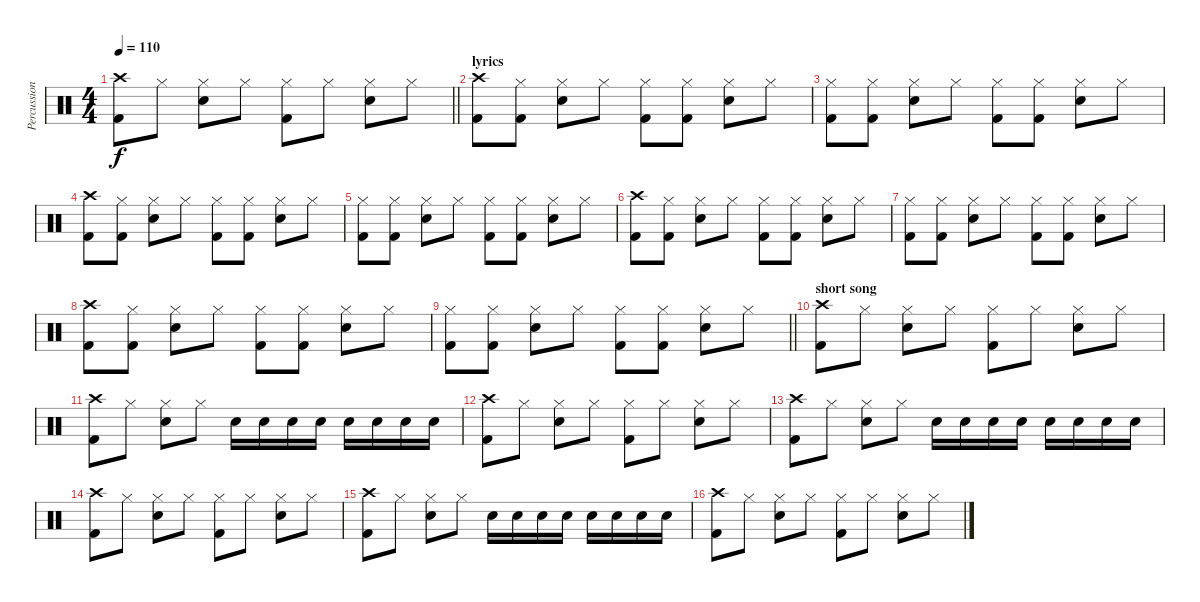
\track ("Percussion" "Percussion") {instrument percussion}
\staff {score}
\articulation defaults
\ts (4 4)
\tempo 110
\clef neutral
\barLineRight lightlight
\ks c
("Crash high (hit)" "Kick (hit) 2").8{dy f} "Hi-Hat (closed)".8 ("Hi-Hat (closed)" "Electric Snare (hit)").8 "Hi-Hat (closed)".8 ("Hi-Hat (closed)" "Kick (hit) 2").8 "Hi-Hat (closed)".8 ("Hi-Hat (closed)" "Electric Snare (hit)").8 "Hi-Hat (closed)".8 |
\section ("" "lyrics")
("Crash high (hit)" "Kick (hit) 2").8 ("Hi-Hat (closed)" "Kick (hit) 2").8 ("Hi-Hat (closed)" "Electric Snare (hit)").8 "Hi-Hat (closed)".8 ("Hi-Hat (closed)" "Kick (hit) 2").8 ("Hi-Hat (closed)" "Kick (hit) 2").8 ("Hi-Hat (closed)" "Electric Snare (hit)").8 "Hi-Hat (closed)".8 |
("Hi-Hat (closed)" "Kick (hit) 2").8 ("Hi-Hat (closed)" "Kick (hit) 2").8 ("Hi-Hat (closed)" "Electric Snare (hit)").8 "Hi-Hat (closed)".8 ("Hi-Hat (closed)" "Kick (hit) 2").8 ("Hi-Hat (closed)" "Kick (hit) 2").8 ("Hi-Hat (closed)" "Electric Snare (hit)").8 "Hi-Hat (closed)".8 |
("Crash high (hit)" "Kick (hit) 2").8 ("Hi-Hat (closed)" "Kick (hit) 2").8 ("Hi-Hat (closed)" "Electric Snare (hit)").8 "Hi-Hat (closed)".8 ("Hi-Hat (closed)" "Kick (hit) 2").8 ("Hi-Hat (closed)" "Kick (hit) 2").8 ("Hi-Hat (closed)" "Electric Snare (hit)").8 "Hi-Hat (closed)".8 |
("Hi-Hat (closed)" "Kick (hit) 2").8 ("Hi-Hat (closed)" "Kick (hit) 2").8 ("Hi-Hat (closed)" "Electric Snare (hit)").8 "Hi-Hat (closed)".8 ("Hi-Hat (closed)" "Kick (hit) 2").8 ("Hi-Hat (closed)" "Kick (hit) 2").8 ("Hi-Hat (closed)" "Electric Snare (hit)").8 "Hi-Hat (closed)".8 |
("Crash high (hit)" "Kick (hit) 2").8 ("Hi-Hat (closed)" "Kick (hit) 2").8 ("Hi-Hat (closed)" "Electric Snare (hit)").8 "Hi-Hat (closed)".8 ("Hi-Hat (closed)" "Kick (hit) 2").8 ("Hi-Hat (closed)" "Kick (hit) 2").8 ("Hi-Hat (closed)" "Electric Snare (hit)").8 "Hi-Hat (closed)".8 |
("Hi-Hat (closed)" "Kick (hit) 2").8 ("Hi-Hat (closed)" "Kick (hit) 2").8 ("Hi-Hat (closed)" "Electric Snare (hit)").8 "Hi-Hat (closed)".8 ("Hi-Hat (closed)" "Kick (hit) 2").8 ("Hi-Hat (closed)" "Kick (hit) 2").8 ("Hi-Hat (closed)" "Electric Snare (hit)").8 "Hi-Hat (closed)".8 |
("Crash high (hit)" "Kick (hit) 2").8 ("Hi-Hat (closed)" "Kick (hit) 2").8 ("Hi-Hat (closed)" "Electric Snare (hit)").8 "Hi-Hat (closed)".8 ("Hi-Hat (closed)" "Kick (hit) 2").8 ("Hi-Hat (closed)" "Kick (hit) 2").8 ("Hi-Hat (closed)" "Electric Snare (hit)").8 "Hi-Hat (closed)".8 |
\barLineRight lightlight
("Hi-Hat (closed)" "Kick (hit) 2").8 ("Hi-Hat (closed)" "Kick (hit) 2").8 ("Hi-Hat (closed)" "Electric Snare (hit)").8 "Hi-Hat (closed)".8 ("Hi-Hat (closed)" "Kick (hit) 2").8 ("Hi-Hat (closed)" "Kick (hit) 2").8 ("Hi-Hat (closed)" "Electric Snare (hit)").8 "Hi-Hat (closed)".8 |
\section ("" "short song")
("Crash high (hit)" "Kick (hit) 2").8 "Hi-Hat (closed)".8 ("Hi-Hat (closed)" "Electric Snare (hit)").8 "Hi-Hat (closed)".8 ("Hi-Hat (closed)" "Kick (hit) 2").8 "Hi-Hat (closed)".8 ("Hi-Hat (closed)" "Electric Snare (hit)").8 "Hi-Hat (closed)".8 |
("Crash high (hit)" "Kick (hit) 2").8 "Hi-Hat (closed)".8 ("Hi-Hat (closed)" "Electric Snare (hit)").8 "Hi-Hat (closed)".8 "Electric Snare (hit)".16 "Electric Snare (hit)".16 "Electric Snare (hit)".16 "Electric Snare (hit)".16 "Electric Snare (hit)".16 "Electric Snare (hit)".16 "Electric Snare (hit)".16 "Electric Snare (hit)".16 |
("Crash high (hit)" "Kick (hit) 2").8 "Hi-Hat (closed)".8 ("Hi-Hat (closed)" "Electric Snare (hit)").8 "Hi-Hat (closed)".8 ("Hi-Hat (closed)" "Kick (hit) 2").8 "Hi-Hat (closed)".8 ("Hi-Hat (closed)" "Electric Snare (hit)").8 "Hi-Hat (closed)".8 |
("Crash high (hit)" "Kick (hit) 2").8 "Hi-Hat (closed)".8 ("Hi-Hat (closed)" "Electric Snare (hit)").8 "Hi-Hat (closed)".8 "Electric Snare (hit)".16 "Electric Snare (hit)".16 "Electric Snare (hit)".16 "Electric Snare (hit)".16 "Electric Snare (hit)".16 "Electric Snare (hit)".16 "Electric Snare (hit)".16 "Electric Snare (hit)".16 |
("Crash high (hit)" "Kick (hit) 2").8 "Hi-Hat (closed)".8 ("Hi-Hat (closed)" "Electric Snare (hit)").8 "Hi-Hat (closed)".8 ("Hi-Hat (closed)" "Kick (hit) 2").8 "Hi-Hat (closed)".8 ("Hi-Hat (closed)" "Electric Snare (hit)").8 "Hi-Hat (closed)".8 |
("Crash high (hit)" "Kick (hit) 2").8 "Hi-Hat (closed)".8 ("Hi-Hat (closed)" "Electric Snare (hit)").8 "Hi-Hat (closed)".8 "Electric Snare (hit)".16 "Electric Snare (hit)".16 "Electric Snare (hit)".16 "Electric Snare (hit)".16 "Electric Snare (hit)".16 "Electric Snare (hit)".16 "Electric Snare (hit)".16 "Electric Snare (hit)".16 |
("Crash high (hit)" "Kick (hit) 2").8 "Hi-Hat (closed)".8 ("Hi-Hat (closed)" "Electric Snare (hit)").8 "Hi-Hat (closed)".8 ("Hi-Hat (closed)" "Kick (hit) 2").8 "Hi-Hat (closed)".8 ("Hi-Hat (closed)" "Electric Snare (hit)").8 "Hi-Hat (closed)".8
